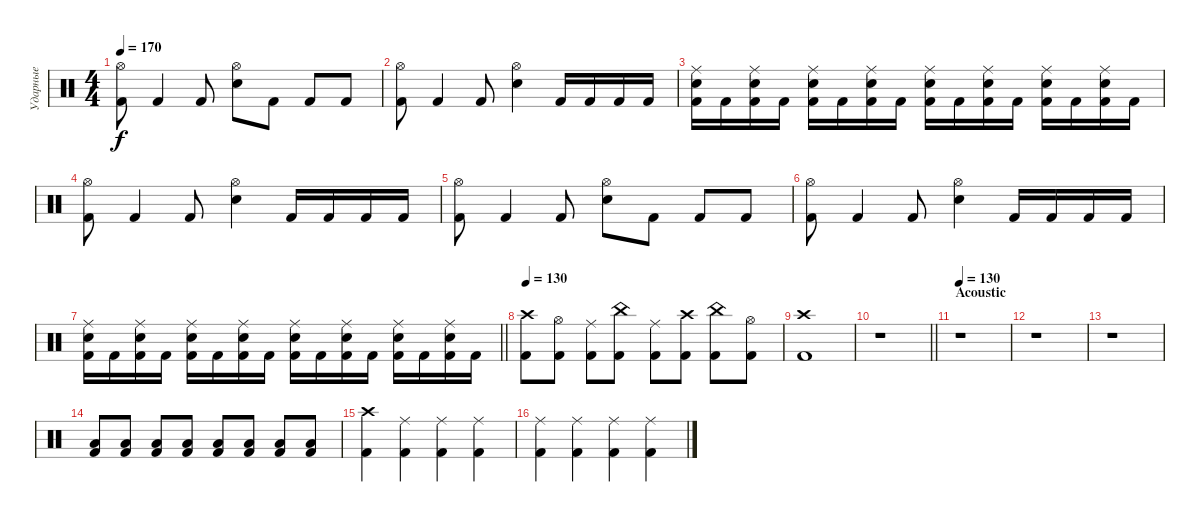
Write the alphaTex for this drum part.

\track ("Ударные" "Ударные") {instrument percussion}
\staff {score}
\articulation defaults
\ts (4 4)
\tempo 170
\clef neutral
\ks c
("Hi-Hat (open)" "Kick (hit) 2").8{dy f} "Kick (hit) 2".4 "Kick (hit) 2".8 ("Hi-Hat (open)" "Electric Snare (hit)").8 "Kick (hit) 2".8 "Kick (hit) 2".8 "Kick (hit) 2".8 |
("Hi-Hat (open)" "Kick (hit) 2").8 "Kick (hit) 2".4 "Kick (hit) 2".8 ("Hi-Hat (open)" "Electric Snare (hit)").4 "Kick (hit) 2".16 "Kick (hit) 2".16 "Kick (hit) 2".16 "Kick (hit) 2".16 |
("Ride (middle)" "Electric Snare (hit)" "Kick (hit) 2").16 "Kick (hit) 2".16 ("Ride (middle)" "Electric Snare (hit)" "Kick (hit) 2").16 "Kick (hit) 2".16 ("Ride (middle)" "Electric Snare (hit)" "Kick (hit) 2").16 "Kick (hit) 2".16 ("Ride (middle)" "Electric Snare (hit)" "Kick (hit) 2").16 "Kick (hit) 2".16 ("Ride (middle)" "Electric Snare (hit)" "Kick (hit) 2").16 "Kick (hit) 2".16 ("Ride (middle)" "Electric Snare (hit)" "Kick (hit) 2").16 "Kick (hit) 2".16 ("Ride (middle)" "Electric Snare (hit)" "Kick (hit) 2").16 "Kick (hit) 2".16 ("Ride (middle)" "Electric Snare (hit)" "Kick (hit) 2").16 "Kick (hit) 2".16 |
("Hi-Hat (open)" "Kick (hit) 2").8 "Kick (hit) 2".4 "Kick (hit) 2".8 ("Hi-Hat (open)" "Electric Snare (hit)").4 "Kick (hit) 2".16 "Kick (hit) 2".16 "Kick (hit) 2".16 "Kick (hit) 2".16 |
("Hi-Hat (open)" "Kick (hit) 2").8 "Kick (hit) 2".4 "Kick (hit) 2".8 ("Hi-Hat (open)" "Electric Snare (hit)").8 "Kick (hit) 2".8 "Kick (hit) 2".8 "Kick (hit) 2".8 |
("Hi-Hat (open)" "Kick (hit) 2").8 "Kick (hit) 2".4 "Kick (hit) 2".8 ("Hi-Hat (open)" "Electric Snare (hit)").4 "Kick (hit) 2".16 "Kick (hit) 2".16 "Kick (hit) 2".16 "Kick (hit) 2".16 |
\barLineRight lightlight
("Ride (middle)" "Electric Snare (hit)" "Kick (hit) 2").16 "Kick (hit) 2".16 ("Ride (middle)" "Electric Snare (hit)" "Kick (hit) 2").16 "Kick (hit) 2".16 ("Ride (middle)" "Electric Snare (hit)" "Kick (hit) 2").16 "Kick (hit) 2".16 ("Ride (middle)" "Electric Snare (hit)" "Kick (hit) 2").16 "Kick (hit) 2".16 ("Ride (middle)" "Electric Snare (hit)" "Kick (hit) 2").16 "Kick (hit) 2".16 ("Ride (middle)" "Electric Snare (hit)" "Kick (hit) 2").16 "Kick (hit) 2".16 ("Ride (middle)" "Electric Snare (hit)" "Kick (hit) 2").16 "Kick (hit) 2".16 ("Ride (middle)" "Electric Snare (hit)" "Kick (hit) 2").16 "Kick (hit) 2".16 |
\tempo 130
("Crash high (hit)" "Kick (hit) 2").8 ("Hi-Hat (open)" "Kick (hit) 2").8 ("Ride (middle)" "Kick (hit) 2").8 ("China (hit)" "Kick (hit) 2").8 ("Ride (middle)" "Kick (hit) 2").8 ("Crash high (hit)" "Kick (hit) 2").8 ("China (hit)" "Kick (hit) 2").8 ("Hi-Hat (open)" "Kick (hit) 2").8 |
("Crash high (hit)" "Kick (hit) 2").1 |
\barLineRight lightlight
r.1 |
\section ("" "Acoustic")
\tempo 130
r.1{volume 5} |
r.1 |
r.1 |
("Low Floor Tom (hit)" "Kick (hit) 2").8{volume 13} ("Low Floor Tom (hit)" "Kick (hit) 2").8 ("Low Floor Tom (hit)" "Kick (hit) 2").8 ("Low Floor Tom (hit)" "Kick (hit) 2").8 ("Low Floor Tom (hit)" "Kick (hit) 2").8 ("Low Floor Tom (hit)" "Kick (hit) 2").8 ("Low Floor Tom (hit)" "Kick (hit) 2").8 ("Low Floor Tom (hit)" "Kick (hit) 2").8 |
("Crash high (hit)" "Kick (hit) 2").4 ("Ride (middle)" "Kick (hit) 2").4 ("Ride (middle)" "Kick (hit) 2").4 ("Ride (middle)" "Kick (hit) 2").4 |
("Ride (middle)" "Kick (hit) 2").4 ("Ride (middle)" "Kick (hit) 2").4 ("Ride (middle)" "Kick (hit) 2").4 ("Ride (middle)" "Kick (hit) 2").4
